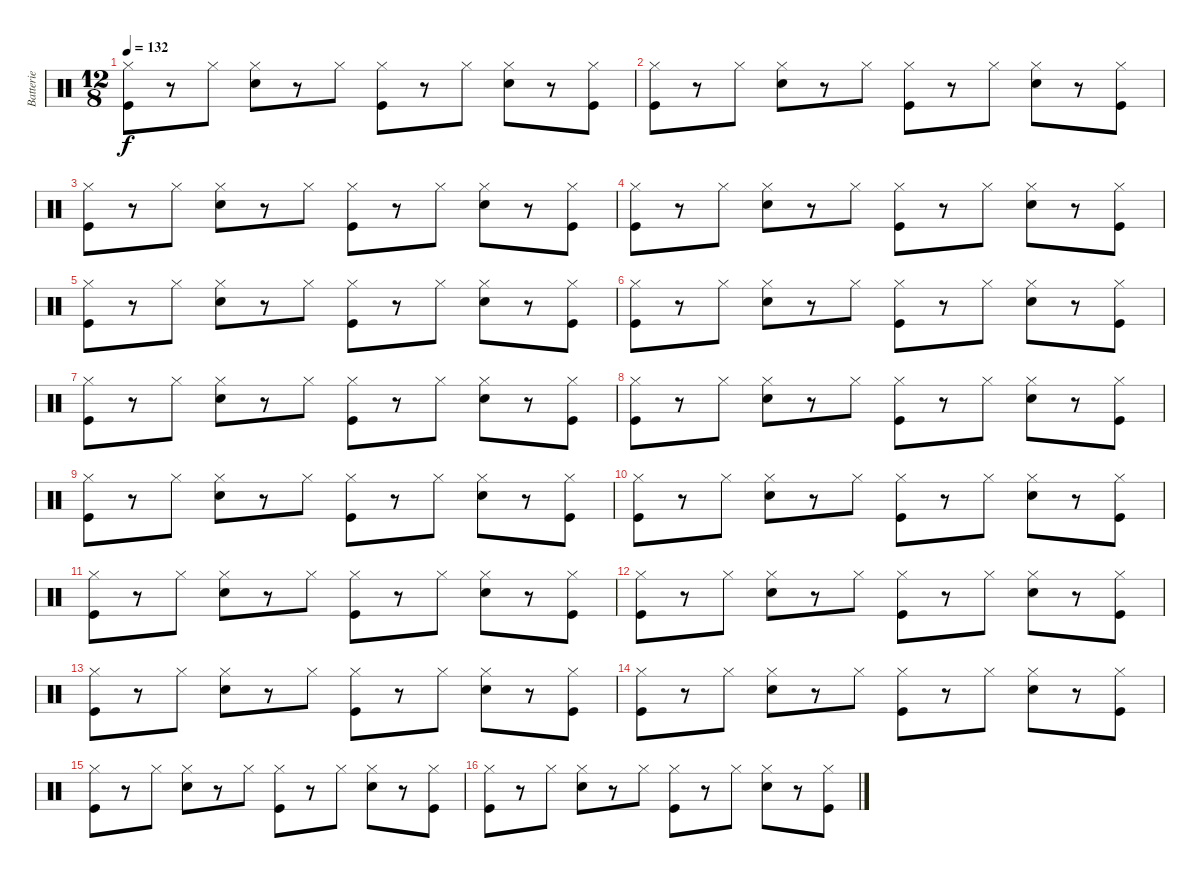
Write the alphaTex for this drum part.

\track ("Batterie" "Batterie") {instrument percussion}
\staff {score}
\articulation defaults
\ts (12 8)
\tempo 132
\clef neutral
\ks c
("Hi-Hat (closed)" "Kick (hit)").8{dy f} r.8 "Hi-Hat (closed)".8 ("Hi-Hat (closed)" "Snare (hit) 2").8 r.8 "Hi-Hat (closed)".8 ("Hi-Hat (closed)" "Kick (hit)").8 r.8 "Hi-Hat (closed)".8 ("Hi-Hat (closed)" "Snare (hit) 2").8 r.8 ("Hi-Hat (closed)" "Kick (hit)").8 |
("Hi-Hat (closed)" "Kick (hit)").8 r.8 "Hi-Hat (closed)".8 ("Hi-Hat (closed)" "Snare (hit) 2").8 r.8 "Hi-Hat (closed)".8 ("Hi-Hat (closed)" "Kick (hit)").8 r.8 "Hi-Hat (closed)".8 ("Hi-Hat (closed)" "Snare (hit) 2").8 r.8 ("Hi-Hat (closed)" "Kick (hit)").8 |
("Hi-Hat (closed)" "Kick (hit)").8 r.8 "Hi-Hat (closed)".8 ("Hi-Hat (closed)" "Snare (hit) 2").8 r.8 "Hi-Hat (closed)".8 ("Hi-Hat (closed)" "Kick (hit)").8 r.8 "Hi-Hat (closed)".8 ("Hi-Hat (closed)" "Snare (hit) 2").8 r.8 ("Hi-Hat (closed)" "Kick (hit)").8 |
("Hi-Hat (closed)" "Kick (hit)").8 r.8 "Hi-Hat (closed)".8 ("Hi-Hat (closed)" "Snare (hit) 2").8 r.8 "Hi-Hat (closed)".8 ("Hi-Hat (closed)" "Kick (hit)").8 r.8 "Hi-Hat (closed)".8 ("Hi-Hat (closed)" "Snare (hit) 2").8 r.8 ("Hi-Hat (closed)" "Kick (hit)").8 |
("Hi-Hat (closed)" "Kick (hit)").8 r.8 "Hi-Hat (closed)".8 ("Hi-Hat (closed)" "Snare (hit) 2").8 r.8 "Hi-Hat (closed)".8 ("Hi-Hat (closed)" "Kick (hit)").8 r.8 "Hi-Hat (closed)".8 ("Hi-Hat (closed)" "Snare (hit) 2").8 r.8 ("Hi-Hat (closed)" "Kick (hit)").8 |
("Hi-Hat (closed)" "Kick (hit)").8 r.8 "Hi-Hat (closed)".8 ("Hi-Hat (closed)" "Snare (hit) 2").8 r.8 "Hi-Hat (closed)".8 ("Hi-Hat (closed)" "Kick (hit)").8 r.8 "Hi-Hat (closed)".8 ("Hi-Hat (closed)" "Snare (hit) 2").8 r.8 ("Hi-Hat (closed)" "Kick (hit)").8 |
("Hi-Hat (closed)" "Kick (hit)").8 r.8 "Hi-Hat (closed)".8 ("Hi-Hat (closed)" "Snare (hit) 2").8 r.8 "Hi-Hat (closed)".8 ("Hi-Hat (closed)" "Kick (hit)").8 r.8 "Hi-Hat (closed)".8 ("Hi-Hat (closed)" "Snare (hit) 2").8 r.8 ("Hi-Hat (closed)" "Kick (hit)").8 |
("Hi-Hat (closed)" "Kick (hit)").8 r.8 "Hi-Hat (closed)".8 ("Hi-Hat (closed)" "Snare (hit) 2").8 r.8 "Hi-Hat (closed)".8 ("Hi-Hat (closed)" "Kick (hit)").8 r.8 "Hi-Hat (closed)".8 ("Hi-Hat (closed)" "Snare (hit) 2").8 r.8 ("Hi-Hat (closed)" "Kick (hit)").8 |
("Hi-Hat (closed)" "Kick (hit)").8 r.8 "Hi-Hat (closed)".8 ("Hi-Hat (closed)" "Snare (hit) 2").8 r.8 "Hi-Hat (closed)".8 ("Hi-Hat (closed)" "Kick (hit)").8 r.8 "Hi-Hat (closed)".8 ("Hi-Hat (closed)" "Snare (hit) 2").8 r.8 ("Hi-Hat (closed)" "Kick (hit)").8 |
("Hi-Hat (closed)" "Kick (hit)").8 r.8 "Hi-Hat (closed)".8 ("Hi-Hat (closed)" "Snare (hit) 2").8 r.8 "Hi-Hat (closed)".8 ("Hi-Hat (closed)" "Kick (hit)").8 r.8 "Hi-Hat (closed)".8 ("Hi-Hat (closed)" "Snare (hit) 2").8 r.8 ("Hi-Hat (closed)" "Kick (hit)").8 |
("Hi-Hat (closed)" "Kick (hit)").8 r.8 "Hi-Hat (closed)".8 ("Hi-Hat (closed)" "Snare (hit) 2").8 r.8 "Hi-Hat (closed)".8 ("Hi-Hat (closed)" "Kick (hit)").8 r.8 "Hi-Hat (closed)".8 ("Hi-Hat (closed)" "Snare (hit) 2").8 r.8 ("Hi-Hat (closed)" "Kick (hit)").8 |
("Hi-Hat (closed)" "Kick (hit)").8 r.8 "Hi-Hat (closed)".8 ("Hi-Hat (closed)" "Snare (hit) 2").8 r.8 "Hi-Hat (closed)".8 ("Hi-Hat (closed)" "Kick (hit)").8 r.8 "Hi-Hat (closed)".8 ("Hi-Hat (closed)" "Snare (hit) 2").8 r.8 ("Hi-Hat (closed)" "Kick (hit)").8 |
("Hi-Hat (closed)" "Kick (hit)").8 r.8 "Hi-Hat (closed)".8 ("Hi-Hat (closed)" "Snare (hit) 2").8 r.8 "Hi-Hat (closed)".8 ("Hi-Hat (closed)" "Kick (hit)").8 r.8 "Hi-Hat (closed)".8 ("Hi-Hat (closed)" "Snare (hit) 2").8 r.8 ("Hi-Hat (closed)" "Kick (hit)").8 |
("Hi-Hat (closed)" "Kick (hit)").8 r.8 "Hi-Hat (closed)".8 ("Hi-Hat (closed)" "Snare (hit) 2").8 r.8 "Hi-Hat (closed)".8 ("Hi-Hat (closed)" "Kick (hit)").8 r.8 "Hi-Hat (closed)".8 ("Hi-Hat (closed)" "Snare (hit) 2").8 r.8 ("Hi-Hat (closed)" "Kick (hit)").8 |
("Hi-Hat (closed)" "Kick (hit)").8 r.8 "Hi-Hat (closed)".8 ("Hi-Hat (closed)" "Snare (hit) 2").8 r.8 "Hi-Hat (closed)".8 ("Hi-Hat (closed)" "Kick (hit)").8 r.8 "Hi-Hat (closed)".8 ("Hi-Hat (closed)" "Snare (hit) 2").8 r.8 ("Hi-Hat (closed)" "Kick (hit)").8 |
("Hi-Hat (closed)" "Kick (hit)").8 r.8 "Hi-Hat (closed)".8 ("Hi-Hat (closed)" "Snare (hit) 2").8 r.8 "Hi-Hat (closed)".8 ("Hi-Hat (closed)" "Kick (hit)").8 r.8 "Hi-Hat (closed)".8 ("Hi-Hat (closed)" "Snare (hit) 2").8 r.8 ("Hi-Hat (closed)" "Kick (hit)").8
